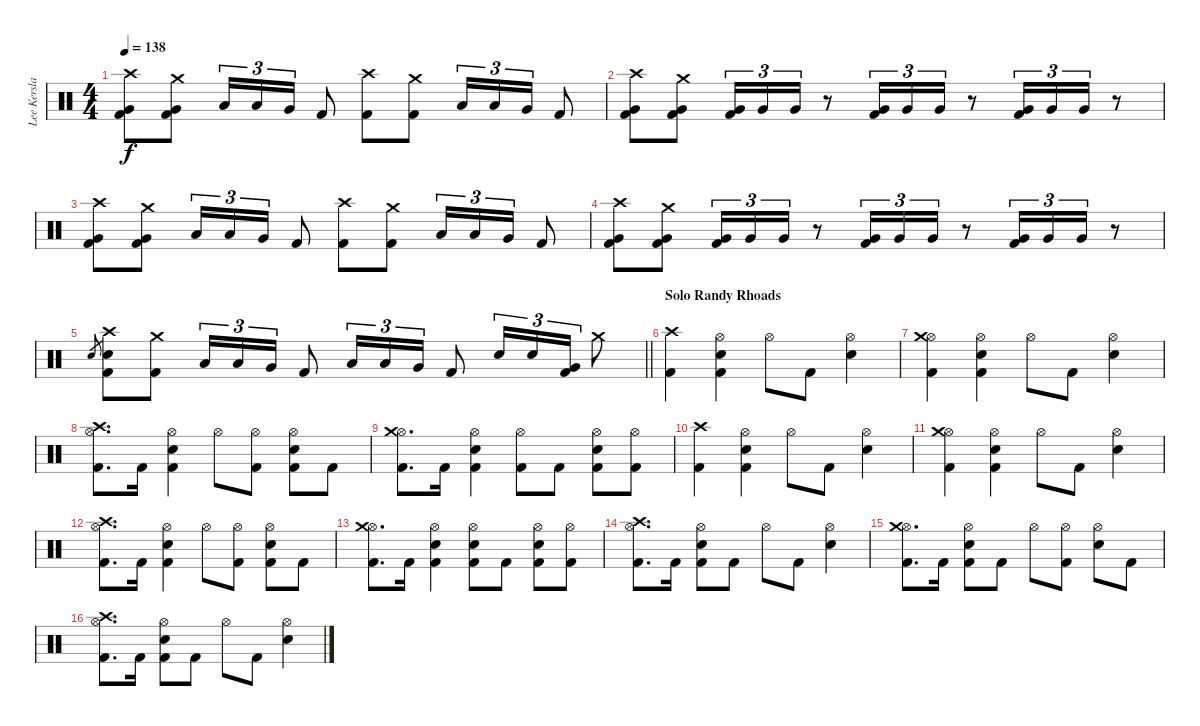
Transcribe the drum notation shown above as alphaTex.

\track ("Lee Kerslake" "Lee Kersla") {instrument percussion}
\staff {score}
\articulation defaults
\ts (4 4)
\tempo 138
\clef neutral
\ks c
("Very Low Tom (hit)" "Crash high (hit)" "Kick (hit) 2").8{dy f} ("Very Low Tom (hit)" "Crash medium (hit)" "Kick (hit) 2").8 "Low Tom (hit)".16{tu (3 2)} "Low Tom (hit)".16{tu (3 2)} "Very Low Tom (hit)".16{tu (3 2)} "Kick (hit) 2".8 ("Crash high (hit)" "Kick (hit) 2").8 ("Crash medium (hit)" "Kick (hit) 2").8 "Low Tom (hit)".16{tu (3 2)} "Low Tom (hit)".16{tu (3 2)} "Very Low Tom (hit)".16{tu (3 2)} "Kick (hit) 2".8 |
("Very Low Tom (hit)" "Crash high (hit)" "Kick (hit) 2").8 ("Very Low Tom (hit)" "Crash medium (hit)" "Kick (hit) 2").8 ("Very Low Tom (hit)" "Kick (hit) 2").16{tu (3 2)} "Very Low Tom (hit)".16{tu (3 2)} "Very Low Tom (hit)".16{tu (3 2)} r.8 ("Very Low Tom (hit)" "Kick (hit) 2").16{tu (3 2)} "Very Low Tom (hit)".16{tu (3 2)} "Very Low Tom (hit)".16{tu (3 2)} r.8 ("Very Low Tom (hit)" "Kick (hit) 2").16{tu (3 2)} "Very Low Tom (hit)".16{tu (3 2)} "Very Low Tom (hit)".16{tu (3 2)} r.8 |
("Very Low Tom (hit)" "Crash high (hit)" "Kick (hit) 2").8 ("Very Low Tom (hit)" "Crash medium (hit)" "Kick (hit) 2").8 "Low Tom (hit)".16{tu (3 2)} "Low Tom (hit)".16{tu (3 2)} "Very Low Tom (hit)".16{tu (3 2)} "Kick (hit) 2".8 ("Crash high (hit)" "Kick (hit) 2").8 ("Crash medium (hit)" "Kick (hit) 2").8 "Low Tom (hit)".16{tu (3 2)} "Low Tom (hit)".16{tu (3 2)} "Very Low Tom (hit)".16{tu (3 2)} "Kick (hit) 2".8 |
("Very Low Tom (hit)" "Crash high (hit)" "Kick (hit) 2").8 ("Very Low Tom (hit)" "Crash medium (hit)" "Kick (hit) 2").8 ("Very Low Tom (hit)" "Kick (hit) 2").16{tu (3 2)} "Very Low Tom (hit)".16{tu (3 2)} "Very Low Tom (hit)".16{tu (3 2)} r.8 ("Very Low Tom (hit)" "Kick (hit) 2").16{tu (3 2)} "Very Low Tom (hit)".16{tu (3 2)} "Very Low Tom (hit)".16{tu (3 2)} r.8 ("Very Low Tom (hit)" "Kick (hit) 2").16{tu (3 2)} "Very Low Tom (hit)".16{tu (3 2)} "Very Low Tom (hit)".16{tu (3 2)} r.8 |
\barLineRight lightlight "Snare (hit) 2".8{gr}
("Snare (hit) 2" "Crash high (hit)" "Kick (hit) 2").8 ("Crash medium (hit)" "Kick (hit) 2").8 "Low Tom (hit)".16{tu (3 2)} "Low Tom (hit)".16{tu (3 2)} "Very Low Tom (hit)".16{tu (3 2)} "Kick (hit) 2".8 "Low Tom (hit)".16{tu (3 2)} "Low Tom (hit)".16{tu (3 2)} "Very Low Tom (hit)".16{tu (3 2)} "Kick (hit) 2".8 "Snare (hit) 2".16{tu (3 2)} "Snare (hit) 2".16{tu (3 2)} ("Very Low Tom (hit)" "Kick (hit) 2").16{tu (3 2)} "Crash medium (hit)".8 |
\section ("" "Solo Randy Rhoads")
("Crash high (hit)" "Kick (hit) 2").4 ("Hi-Hat (open)" "Snare (hit) 2" "Kick (hit) 2").4 "Hi-Hat (open)".8 "Kick (hit) 2".8 ("Hi-Hat (open)" "Snare (hit) 2").4 |
("Hi-Hat (open)" "Crash medium (hit)" "Kick (hit) 2").4 ("Hi-Hat (open)" "Snare (hit) 2" "Kick (hit) 2").4 "Hi-Hat (open)".8 "Kick (hit) 2".8 ("Hi-Hat (open)" "Snare (hit) 2").4 |
("Hi-Hat (open)" "Crash high (hit)" "Kick (hit) 2").8{d} "Kick (hit) 2".16 ("Hi-Hat (open)" "Snare (hit) 2" "Kick (hit) 2").4 "Hi-Hat (open)".8 ("Hi-Hat (open)" "Kick (hit) 2").8 ("Hi-Hat (open)" "Snare (hit) 2" "Kick (hit) 2").8 "Kick (hit) 2".8 |
("Hi-Hat (open)" "Crash medium (hit)" "Kick (hit) 2").8{d} "Kick (hit) 2".16 ("Hi-Hat (open)" "Snare (hit) 2" "Kick (hit) 2").4 ("Hi-Hat (open)" "Kick (hit) 2").8 "Kick (hit) 2".8 ("Hi-Hat (open)" "Snare (hit) 2" "Kick (hit) 2").8 ("Hi-Hat (open)" "Kick (hit) 2").8 |
("Crash high (hit)" "Kick (hit) 2").4 ("Hi-Hat (open)" "Snare (hit) 2" "Kick (hit) 2").4 "Hi-Hat (open)".8 "Kick (hit) 2".8 ("Hi-Hat (open)" "Snare (hit) 2").4 |
("Hi-Hat (open)" "Crash medium (hit)" "Kick (hit) 2").4 ("Hi-Hat (open)" "Snare (hit) 2" "Kick (hit) 2").4 "Hi-Hat (open)".8 "Kick (hit) 2".8 ("Hi-Hat (open)" "Snare (hit) 2").4 |
("Hi-Hat (open)" "Crash high (hit)" "Kick (hit) 2").8{d} "Kick (hit) 2".16 ("Hi-Hat (open)" "Snare (hit) 2" "Kick (hit) 2").4 "Hi-Hat (open)".8 ("Hi-Hat (open)" "Kick (hit) 2").8 ("Hi-Hat (open)" "Snare (hit) 2" "Kick (hit) 2").8 "Kick (hit) 2".8 |
("Hi-Hat (open)" "Crash medium (hit)" "Kick (hit) 2").8{d} "Kick (hit) 2".16 ("Hi-Hat (open)" "Snare (hit) 2" "Kick (hit) 2").4 ("Hi-Hat (open)" "Snare (hit) 2" "Kick (hit) 2").8 "Kick (hit) 2".8 ("Hi-Hat (open)" "Snare (hit) 2" "Kick (hit) 2").8 ("Hi-Hat (open)" "Kick (hit) 2").8 |
("Hi-Hat (open)" "Crash high (hit)" "Kick (hit) 2").8{d} "Kick (hit) 2".16 ("Hi-Hat (open)" "Snare (hit) 2" "Kick (hit) 2").8 "Kick (hit) 2".8 "Hi-Hat (open)".8 "Kick (hit) 2".8 ("Hi-Hat (open)" "Snare (hit) 2").4 |
("Hi-Hat (open)" "Crash medium (hit)" "Kick (hit) 2").8{d} "Kick (hit) 2".16 ("Hi-Hat (open)" "Snare (hit) 2" "Kick (hit) 2").8 "Kick (hit) 2".8 "Hi-Hat (open)".8 ("Hi-Hat (open)" "Kick (hit) 2").8 ("Hi-Hat (open)" "Snare (hit) 2").8 "Kick (hit) 2".8 |
("Hi-Hat (open)" "Crash high (hit)" "Kick (hit) 2").8{d} "Kick (hit) 2".16 ("Hi-Hat (open)" "Snare (hit) 2" "Kick (hit) 2").8 "Kick (hit) 2".8 "Hi-Hat (open)".8 "Kick (hit) 2".8 ("Hi-Hat (open)" "Snare (hit) 2").4
